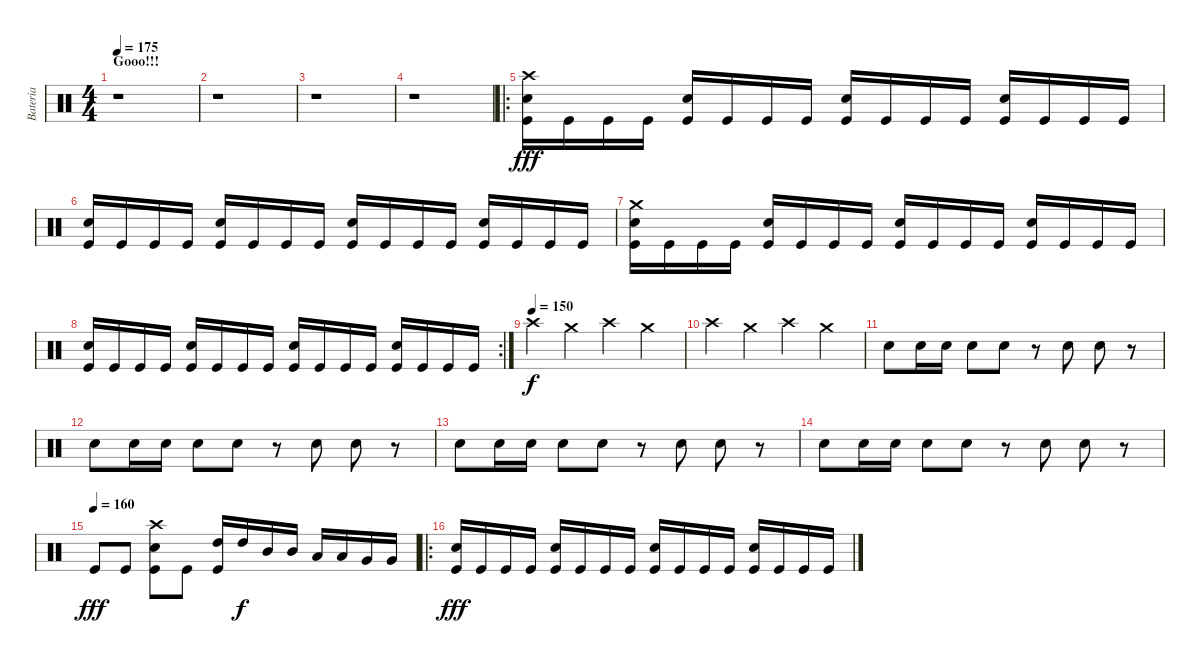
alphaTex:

\track ("Bateria" "Bateria") {instrument percussion}
\staff {score}
\articulation defaults
\ts (4 4)
\section ("" "Gooo!!!")
\tempo 175
\clef neutral
\ks c
r.1{dy fff} |
r.1 |
r.1 |
r.1 |
\ro
("Crash high (hit)" "Electric Snare (hit)" "Kick (hit)").16 "Kick (hit)".16 "Kick (hit)".16 "Kick (hit)".16 ("Electric Snare (hit)" "Kick (hit)").16 "Kick (hit)".16 "Kick (hit)".16 "Kick (hit)".16 ("Electric Snare (hit)" "Kick (hit)").16 "Kick (hit)".16 "Kick (hit)".16 "Kick (hit)".16 ("Electric Snare (hit)" "Kick (hit)").16 "Kick (hit)".16 "Kick (hit)".16 "Kick (hit)".16 |
("Electric Snare (hit)" "Kick (hit)").16 "Kick (hit)".16 "Kick (hit)".16 "Kick (hit)".16 ("Electric Snare (hit)" "Kick (hit)").16 "Kick (hit)".16 "Kick (hit)".16 "Kick (hit)".16 ("Electric Snare (hit)" "Kick (hit)").16 "Kick (hit)".16 "Kick (hit)".16 "Kick (hit)".16 ("Electric Snare (hit)" "Kick (hit)").16 "Kick (hit)".16 "Kick (hit)".16 "Kick (hit)".16 |
("Crash medium (hit)" "Electric Snare (hit)" "Kick (hit)").16 "Kick (hit)".16 "Kick (hit)".16 "Kick (hit)".16 ("Electric Snare (hit)" "Kick (hit)").16 "Kick (hit)".16 "Kick (hit)".16 "Kick (hit)".16 ("Electric Snare (hit)" "Kick (hit)").16 "Kick (hit)".16 "Kick (hit)".16 "Kick (hit)".16 ("Electric Snare (hit)" "Kick (hit)").16 "Kick (hit)".16 "Kick (hit)".16 "Kick (hit)".16 |
\rc 2
("Electric Snare (hit)" "Kick (hit)").16 "Kick (hit)".16 "Kick (hit)".16 "Kick (hit)".16 ("Electric Snare (hit)" "Kick (hit)").16 "Kick (hit)".16 "Kick (hit)".16 "Kick (hit)".16 ("Electric Snare (hit)" "Kick (hit)").16 "Kick (hit)".16 "Kick (hit)".16 "Kick (hit)".16 ("Electric Snare (hit)" "Kick (hit)").16 "Kick (hit)".16 "Kick (hit)".16 "Kick (hit)".16 |
\tempo (150)
"Crash high (hit)".4{dy f} "Crash medium (hit)".4 "Crash high (hit)".4 "Crash medium (hit)".4 |
"Crash high (hit)".4 "Crash medium (hit)".4 "Crash high (hit)".4 "Crash medium (hit)".4 |
"Electric Snare (hit)".8 "Electric Snare (hit)".16 "Electric Snare (hit)".16 "Electric Snare (hit)".8 "Electric Snare (hit)".8 r.8 "Electric Snare (hit)".8 "Electric Snare (hit)".8 r.8 |
"Electric Snare (hit)".8 "Electric Snare (hit)".16 "Electric Snare (hit)".16 "Electric Snare (hit)".8 "Electric Snare (hit)".8 r.8 "Electric Snare (hit)".8 "Electric Snare (hit)".8 r.8 |
"Electric Snare (hit)".8 "Electric Snare (hit)".16 "Electric Snare (hit)".16 "Electric Snare (hit)".8 "Electric Snare (hit)".8 r.8 "Electric Snare (hit)".8 "Electric Snare (hit)".8 r.8 |
"Electric Snare (hit)".8 "Electric Snare (hit)".16 "Electric Snare (hit)".16 "Electric Snare (hit)".8 "Electric Snare (hit)".8 r.8 "Electric Snare (hit)".8 "Electric Snare (hit)".8 r.8 |
\tempo (160)
"Kick (hit)".8{dy fff} "Kick (hit)".8 ("Crash high (hit)" "Electric Snare (hit)" "Kick (hit)").8 "Kick (hit)".8 ("High Tom (hit)" "Kick (hit)").16 "High Tom (hit)".16{dy f} "Mid Tom (hit)".16 "Mid Tom (hit)".16 "Low Tom (hit)".16 "Low Tom (hit)".16 "Very Low Tom (hit)".16 "Very Low Tom (hit)".16 |
\ro
("Electric Snare (hit)" "Kick (hit)").16{dy fff} "Kick (hit)".16 "Kick (hit)".16 "Kick (hit)".16 ("Electric Snare (hit)" "Kick (hit)").16 "Kick (hit)".16 "Kick (hit)".16 "Kick (hit)".16 ("Electric Snare (hit)" "Kick (hit)").16 "Kick (hit)".16 "Kick (hit)".16 "Kick (hit)".16 ("Electric Snare (hit)" "Kick (hit)").16 "Kick (hit)".16 "Kick (hit)".16 "Kick (hit)".16
